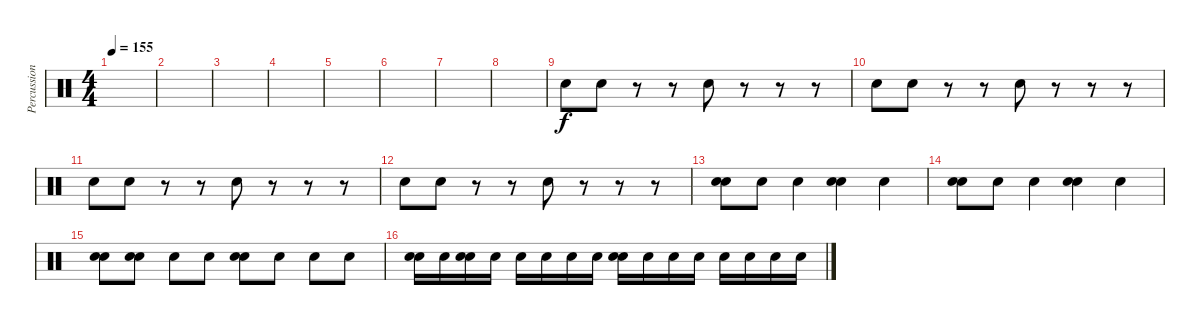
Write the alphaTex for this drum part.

\track ("Percussion" "Percussion") {instrument percussion}
\staff {score}
\articulation defaults
\ts (4 4)
\tempo 155
\clef neutral
\ks c
|
|
|
|
|
|
|
|
"Electric Snare (hit)".8 "Electric Snare (hit)".8 r.8 r.8 "Electric Snare (hit)".8 r.8 r.8 r.8 |
"Electric Snare (hit)".8 "Electric Snare (hit)".8 r.8 r.8 "Electric Snare (hit)".8 r.8 r.8 r.8 |
"Electric Snare (hit)".8 "Electric Snare (hit)".8 r.8 r.8 "Electric Snare (hit)".8 r.8 r.8 r.8 |
"Hand Clap (hit)".8 "Hand Clap (hit)".8 r.8 r.8 "Hand Clap (hit)".8 r.8 r.8 r.8 |
("Hand Clap (hit)" "Snare (hit) 2").8 "Hand Clap (hit)".8 "Snare (hit) 2".4 ("Hand Clap (hit)" "Snare (hit) 2").4 "Snare (hit) 2".4 |
("Hand Clap (hit)" "Snare (hit) 2").8 "Hand Clap (hit)".8 "Snare (hit) 2".4 ("Hand Clap (hit)" "Snare (hit) 2").4 "Snare (hit) 2".4 |
("Hand Clap (hit)" "Snare (hit) 2").8 ("Hand Clap (hit)" "Snare (hit) 2").8 "Snare (hit) 2".8 "Snare (hit) 2".8 ("Hand Clap (hit)" "Snare (hit) 2").8 "Snare (hit) 2".8 "Snare (hit) 2".8 "Snare (hit) 2".8 |
("Hand Clap (hit)" "Snare (hit) 2").16 "Snare (hit) 2".16 ("Hand Clap (hit)" "Snare (hit) 2").16 "Snare (hit) 2".16 "Snare (hit) 2".16 "Snare (hit) 2".16 "Snare (hit) 2".16 "Snare (hit) 2".16 ("Hand Clap (hit)" "Snare (hit) 2").16 "Snare (hit) 2".16 "Snare (hit) 2".16 "Snare (hit) 2".16 "Snare (hit) 2".16 "Snare (hit) 2".16 "Snare (hit) 2".16 "Snare (hit) 2".16
